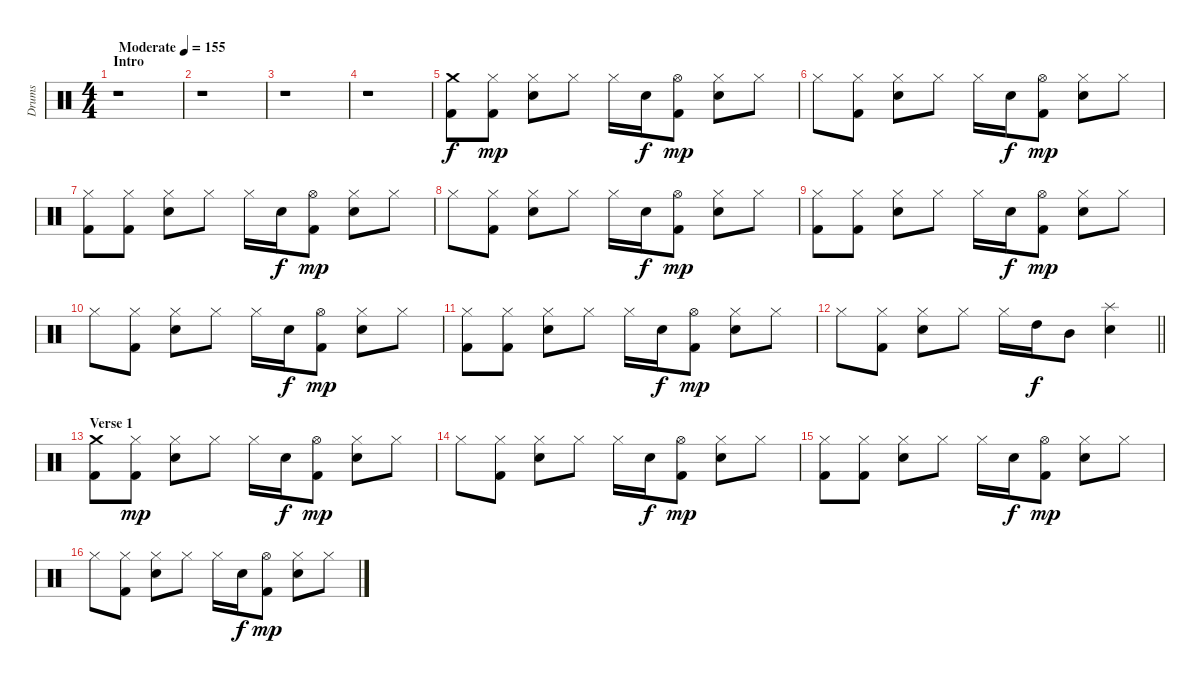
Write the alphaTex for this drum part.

\track ("Drums" "Drums") {instrument percussion}
\staff {score}
\articulation defaults
\ts (4 4)
\section ("" "Intro")
\tempo (155 "Moderate")
\clef neutral
\ks c
r.1{dy f} |
r.1 |
r.1 |
r.1 |
("Crash medium (hit)" "Kick (hit) 2").8 ("Hi-Hat (closed)" "Kick (hit) 2").8{dy mp} ("Hi-Hat (closed)" "Snare (hit) 2").8 "Hi-Hat (closed)".8 "Hi-Hat (closed)".16 "Snare (hit) 2".16{dy f} ("Hi-Hat (open)" "Kick (hit) 2").8{dy mp} ("Hi-Hat (closed)" "Snare (hit) 2").8 "Hi-Hat (closed)".8 |
"Hi-Hat (closed)".8 ("Hi-Hat (closed)" "Kick (hit) 2").8 ("Hi-Hat (closed)" "Snare (hit) 2").8 "Hi-Hat (closed)".8 "Hi-Hat (closed)".16 "Snare (hit) 2".16{dy f} ("Hi-Hat (open)" "Kick (hit) 2").8{dy mp} ("Hi-Hat (closed)" "Snare (hit) 2").8 "Hi-Hat (closed)".8 |
("Hi-Hat (closed)" "Kick (hit) 2").8 ("Hi-Hat (closed)" "Kick (hit) 2").8 ("Hi-Hat (closed)" "Snare (hit) 2").8 "Hi-Hat (closed)".8 "Hi-Hat (closed)".16 "Snare (hit) 2".16{dy f} ("Hi-Hat (open)" "Kick (hit) 2").8{dy mp} ("Hi-Hat (closed)" "Snare (hit) 2").8 "Hi-Hat (closed)".8 |
"Hi-Hat (closed)".8 ("Hi-Hat (closed)" "Kick (hit) 2").8 ("Hi-Hat (closed)" "Snare (hit) 2").8 "Hi-Hat (closed)".8 "Hi-Hat (closed)".16 "Snare (hit) 2".16{dy f} ("Hi-Hat (open)" "Kick (hit) 2").8{dy mp} ("Hi-Hat (closed)" "Snare (hit) 2").8 "Hi-Hat (closed)".8 |
("Hi-Hat (closed)" "Kick (hit) 2").8 ("Hi-Hat (closed)" "Kick (hit) 2").8 ("Hi-Hat (closed)" "Snare (hit) 2").8 "Hi-Hat (closed)".8 "Hi-Hat (closed)".16 "Snare (hit) 2".16{dy f} ("Hi-Hat (open)" "Kick (hit) 2").8{dy mp} ("Hi-Hat (closed)" "Snare (hit) 2").8 "Hi-Hat (closed)".8 |
"Hi-Hat (closed)".8 ("Hi-Hat (closed)" "Kick (hit) 2").8 ("Hi-Hat (closed)" "Snare (hit) 2").8 "Hi-Hat (closed)".8 "Hi-Hat (closed)".16 "Snare (hit) 2".16{dy f} ("Hi-Hat (open)" "Kick (hit) 2").8{dy mp} ("Hi-Hat (closed)" "Snare (hit) 2").8 "Hi-Hat (closed)".8 |
("Hi-Hat (closed)" "Kick (hit) 2").8 ("Hi-Hat (closed)" "Kick (hit) 2").8 ("Hi-Hat (closed)" "Snare (hit) 2").8 "Hi-Hat (closed)".8 "Hi-Hat (closed)".16 "Snare (hit) 2".16{dy f} ("Hi-Hat (open)" "Kick (hit) 2").8{dy mp} ("Hi-Hat (closed)" "Snare (hit) 2").8 "Hi-Hat (closed)".8 |
\barLineRight lightlight "Hi-Hat (closed)".8
("Hi-Hat (closed)" "Kick (hit) 2").8 ("Hi-Hat (closed)" "Snare (hit) 2").8 "Hi-Hat (closed)".8 "Hi-Hat (closed)".16 "High Tom (hit)".16{dy f} "Mid Tom (hit)".8 ("Splash (hit)" "Snare (hit) 2").4 |
\section ("" "Verse 1")
("Crash medium (hit)" "Kick (hit) 2").8 ("Hi-Hat (closed)" "Kick (hit) 2").8{dy mp} ("Hi-Hat (closed)" "Snare (hit) 2").8 "Hi-Hat (closed)".8 "Hi-Hat (closed)".16 "Snare (hit) 2".16{dy f} ("Hi-Hat (open)" "Kick (hit) 2").8{dy mp} ("Hi-Hat (closed)" "Snare (hit) 2").8 "Hi-Hat (closed)".8 |
"Hi-Hat (closed)".8 ("Hi-Hat (closed)" "Kick (hit) 2").8 ("Hi-Hat (closed)" "Snare (hit) 2").8 "Hi-Hat (closed)".8 "Hi-Hat (closed)".16 "Snare (hit) 2".16{dy f} ("Hi-Hat (open)" "Kick (hit) 2").8{dy mp} ("Hi-Hat (closed)" "Snare (hit) 2").8 "Hi-Hat (closed)".8 |
("Hi-Hat (closed)" "Kick (hit) 2").8 ("Hi-Hat (closed)" "Kick (hit) 2").8 ("Hi-Hat (closed)" "Snare (hit) 2").8 "Hi-Hat (closed)".8 "Hi-Hat (closed)".16 "Snare (hit) 2".16{dy f} ("Hi-Hat (open)" "Kick (hit) 2").8{dy mp} ("Hi-Hat (closed)" "Snare (hit) 2").8 "Hi-Hat (closed)".8 |
"Hi-Hat (closed)".8 ("Hi-Hat (closed)" "Kick (hit) 2").8 ("Hi-Hat (closed)" "Snare (hit) 2").8 "Hi-Hat (closed)".8 "Hi-Hat (closed)".16 "Snare (hit) 2".16{dy f} ("Hi-Hat (open)" "Kick (hit) 2").8{dy mp} ("Hi-Hat (closed)" "Snare (hit) 2").8 "Hi-Hat (closed)".8
